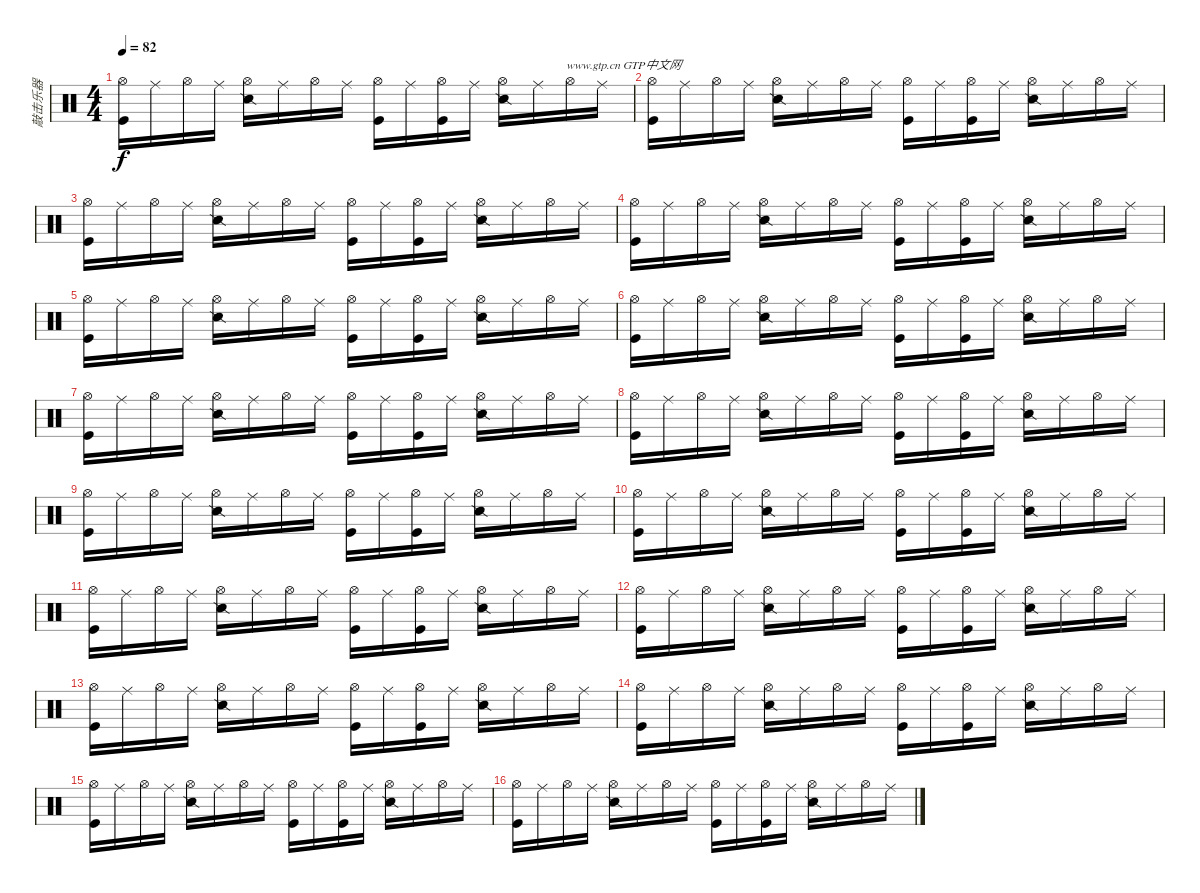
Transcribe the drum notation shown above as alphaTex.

\track ("敲击乐器" "敲击乐器") {instrument percussion}
\staff {score}
\articulation defaults
\ts (4 4)
\tempo 82
\clef neutral
\ks c
("Hi-Hat (open)" "Kick (hit)").16{dy f} "Ride (middle)".16 "Hi-Hat (open)".16 "Ride (middle)".16 ("Hi-Hat (open)" "Snare (side stick) 2").16 "Ride (middle)".16 "Hi-Hat (open)".16 "Ride (middle)".16 ("Hi-Hat (open)" "Kick (hit)").16 "Ride (middle)".16 ("Hi-Hat (open)" "Kick (hit)").16 "Ride (middle)".16 ("Hi-Hat (open)" "Snare (side stick) 2").16{txt "                    www.gtp.cn GTP中文网"} "Ride (middle)".16 "Hi-Hat (open)".16 "Ride (middle)".16 |
("Hi-Hat (open)" "Kick (hit)").16 "Ride (middle)".16 "Hi-Hat (open)".16 "Ride (middle)".16 ("Hi-Hat (open)" "Snare (side stick) 2").16 "Ride (middle)".16 "Hi-Hat (open)".16 "Ride (middle)".16 ("Hi-Hat (open)" "Kick (hit)").16 "Ride (middle)".16 ("Hi-Hat (open)" "Kick (hit)").16 "Ride (middle)".16 ("Hi-Hat (open)" "Snare (side stick) 2").16 "Ride (middle)".16 "Hi-Hat (open)".16 "Ride (middle)".16 |
("Hi-Hat (open)" "Kick (hit)").16 "Ride (middle)".16 "Hi-Hat (open)".16 "Ride (middle)".16 ("Hi-Hat (open)" "Snare (side stick) 2").16 "Ride (middle)".16 "Hi-Hat (open)".16 "Ride (middle)".16 ("Hi-Hat (open)" "Kick (hit)").16 "Ride (middle)".16 ("Hi-Hat (open)" "Kick (hit)").16 "Ride (middle)".16 ("Hi-Hat (open)" "Snare (side stick) 2").16 "Ride (middle)".16 "Hi-Hat (open)".16 "Ride (middle)".16 |
("Hi-Hat (open)" "Kick (hit)").16 "Ride (middle)".16 "Hi-Hat (open)".16 "Ride (middle)".16 ("Hi-Hat (open)" "Snare (side stick) 2").16 "Ride (middle)".16 "Hi-Hat (open)".16 "Ride (middle)".16 ("Hi-Hat (open)" "Kick (hit)").16 "Ride (middle)".16 ("Hi-Hat (open)" "Kick (hit)").16 "Ride (middle)".16 ("Hi-Hat (open)" "Snare (side stick) 2").16 "Ride (middle)".16 "Hi-Hat (open)".16 "Ride (middle)".16 |
("Hi-Hat (open)" "Kick (hit)").16 "Ride (middle)".16 "Hi-Hat (open)".16 "Ride (middle)".16 ("Hi-Hat (open)" "Snare (side stick) 2").16 "Ride (middle)".16 "Hi-Hat (open)".16 "Ride (middle)".16 ("Hi-Hat (open)" "Kick (hit)").16 "Ride (middle)".16 ("Hi-Hat (open)" "Kick (hit)").16 "Ride (middle)".16 ("Hi-Hat (open)" "Snare (side stick) 2").16 "Ride (middle)".16 "Hi-Hat (open)".16 "Ride (middle)".16 |
("Hi-Hat (open)" "Kick (hit)").16 "Ride (middle)".16 "Hi-Hat (open)".16 "Ride (middle)".16 ("Hi-Hat (open)" "Snare (side stick) 2").16 "Ride (middle)".16 "Hi-Hat (open)".16 "Ride (middle)".16 ("Hi-Hat (open)" "Kick (hit)").16 "Ride (middle)".16 ("Hi-Hat (open)" "Kick (hit)").16 "Ride (middle)".16 ("Hi-Hat (open)" "Snare (side stick) 2").16 "Ride (middle)".16 "Hi-Hat (open)".16 "Ride (middle)".16 |
("Hi-Hat (open)" "Kick (hit)").16 "Ride (middle)".16 "Hi-Hat (open)".16 "Ride (middle)".16 ("Hi-Hat (open)" "Snare (side stick) 2").16 "Ride (middle)".16 "Hi-Hat (open)".16 "Ride (middle)".16 ("Hi-Hat (open)" "Kick (hit)").16 "Ride (middle)".16 ("Hi-Hat (open)" "Kick (hit)").16 "Ride (middle)".16 ("Hi-Hat (open)" "Snare (side stick) 2").16 "Ride (middle)".16 "Hi-Hat (open)".16 "Ride (middle)".16 |
("Hi-Hat (open)" "Kick (hit)").16 "Ride (middle)".16 "Hi-Hat (open)".16 "Ride (middle)".16 ("Hi-Hat (open)" "Snare (side stick) 2").16 "Ride (middle)".16 "Hi-Hat (open)".16 "Ride (middle)".16 ("Hi-Hat (open)" "Kick (hit)").16 "Ride (middle)".16 ("Hi-Hat (open)" "Kick (hit)").16 "Ride (middle)".16 ("Hi-Hat (open)" "Snare (side stick) 2").16 "Ride (middle)".16 "Hi-Hat (open)".16 "Ride (middle)".16 |
("Hi-Hat (open)" "Kick (hit)").16 "Ride (middle)".16 "Hi-Hat (open)".16 "Ride (middle)".16 ("Hi-Hat (open)" "Snare (side stick) 2").16 "Ride (middle)".16 "Hi-Hat (open)".16 "Ride (middle)".16 ("Hi-Hat (open)" "Kick (hit)").16 "Ride (middle)".16 ("Hi-Hat (open)" "Kick (hit)").16 "Ride (middle)".16 ("Hi-Hat (open)" "Snare (side stick) 2").16 "Ride (middle)".16 "Hi-Hat (open)".16 "Ride (middle)".16 |
("Hi-Hat (open)" "Kick (hit)").16 "Ride (middle)".16 "Hi-Hat (open)".16 "Ride (middle)".16 ("Hi-Hat (open)" "Snare (side stick) 2").16 "Ride (middle)".16 "Hi-Hat (open)".16 "Ride (middle)".16 ("Hi-Hat (open)" "Kick (hit)").16 "Ride (middle)".16 ("Hi-Hat (open)" "Kick (hit)").16 "Ride (middle)".16 ("Hi-Hat (open)" "Snare (side stick) 2").16 "Ride (middle)".16 "Hi-Hat (open)".16 "Ride (middle)".16 |
("Hi-Hat (open)" "Kick (hit)").16 "Ride (middle)".16 "Hi-Hat (open)".16 "Ride (middle)".16 ("Hi-Hat (open)" "Snare (side stick) 2").16 "Ride (middle)".16 "Hi-Hat (open)".16 "Ride (middle)".16 ("Hi-Hat (open)" "Kick (hit)").16 "Ride (middle)".16 ("Hi-Hat (open)" "Kick (hit)").16 "Ride (middle)".16 ("Hi-Hat (open)" "Snare (side stick) 2").16 "Ride (middle)".16 "Hi-Hat (open)".16 "Ride (middle)".16 |
("Hi-Hat (open)" "Kick (hit)").16 "Ride (middle)".16 "Hi-Hat (open)".16 "Ride (middle)".16 ("Hi-Hat (open)" "Snare (side stick) 2").16 "Ride (middle)".16 "Hi-Hat (open)".16 "Ride (middle)".16 ("Hi-Hat (open)" "Kick (hit)").16 "Ride (middle)".16 ("Hi-Hat (open)" "Kick (hit)").16 "Ride (middle)".16 ("Hi-Hat (open)" "Snare (side stick) 2").16 "Ride (middle)".16 "Hi-Hat (open)".16 "Ride (middle)".16 |
("Hi-Hat (open)" "Kick (hit)").16 "Ride (middle)".16 "Hi-Hat (open)".16 "Ride (middle)".16 ("Hi-Hat (open)" "Snare (side stick) 2").16 "Ride (middle)".16 "Hi-Hat (open)".16 "Ride (middle)".16 ("Hi-Hat (open)" "Kick (hit)").16 "Ride (middle)".16 ("Hi-Hat (open)" "Kick (hit)").16 "Ride (middle)".16 ("Hi-Hat (open)" "Snare (side stick) 2").16 "Ride (middle)".16 "Hi-Hat (open)".16 "Ride (middle)".16 |
("Hi-Hat (open)" "Kick (hit)").16 "Ride (middle)".16 "Hi-Hat (open)".16 "Ride (middle)".16 ("Hi-Hat (open)" "Snare (side stick) 2").16 "Ride (middle)".16 "Hi-Hat (open)".16 "Ride (middle)".16 ("Hi-Hat (open)" "Kick (hit)").16 "Ride (middle)".16 ("Hi-Hat (open)" "Kick (hit)").16 "Ride (middle)".16 ("Hi-Hat (open)" "Snare (side stick) 2").16 "Ride (middle)".16 "Hi-Hat (open)".16 "Ride (middle)".16 |
("Hi-Hat (open)" "Kick (hit)").16 "Ride (middle)".16 "Hi-Hat (open)".16 "Ride (middle)".16 ("Hi-Hat (open)" "Snare (side stick) 2").16 "Ride (middle)".16 "Hi-Hat (open)".16 "Ride (middle)".16 ("Hi-Hat (open)" "Kick (hit)").16 "Ride (middle)".16 ("Hi-Hat (open)" "Kick (hit)").16 "Ride (middle)".16 ("Hi-Hat (open)" "Snare (side stick) 2").16 "Ride (middle)".16 "Hi-Hat (open)".16 "Ride (middle)".16 |
("Hi-Hat (open)" "Kick (hit)").16 "Ride (middle)".16 "Hi-Hat (open)".16 "Ride (middle)".16 ("Hi-Hat (open)" "Snare (side stick) 2").16 "Ride (middle)".16 "Hi-Hat (open)".16 "Ride (middle)".16 ("Hi-Hat (open)" "Kick (hit)").16 "Ride (middle)".16 ("Hi-Hat (open)" "Kick (hit)").16 "Ride (middle)".16 ("Hi-Hat (open)" "Snare (side stick) 2").16 "Ride (middle)".16 "Hi-Hat (open)".16 "Ride (middle)".16
